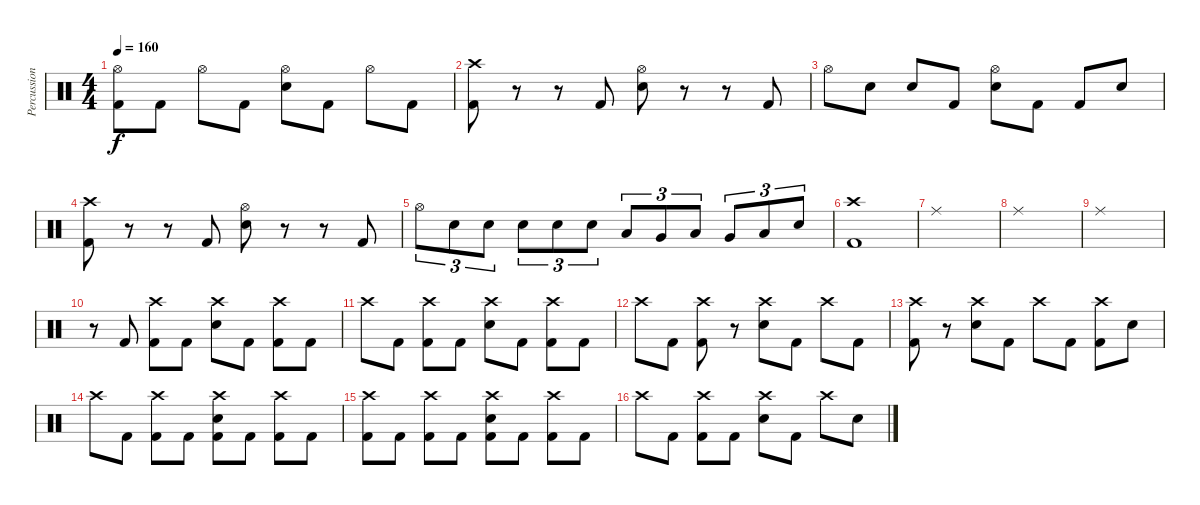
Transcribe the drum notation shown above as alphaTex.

\track ("Percussion" "Percussion") {instrument percussion}
\staff {score}
\articulation defaults
\ts (4 4)
\tempo 160
\clef neutral
\ks c
("Hi-Hat (open)" "Kick (hit) 2").8{dy f} "Kick (hit) 2".8 "Hi-Hat (open)".8 "Kick (hit) 2".8 ("Hi-Hat (open)" "Electric Snare (hit)").8 "Kick (hit) 2".8 "Hi-Hat (open)".8 "Kick (hit) 2".8 |
("Crash high (hit)" "Kick (hit) 2").8 r.8 r.8 "Kick (hit) 2".8 ("Hi-Hat (open)" "Electric Snare (hit)").8 r.8 r.8 "Kick (hit) 2".8 |
"Hi-Hat (open)".8 "Electric Snare (hit)".8 "Electric Snare (hit)".8 "Kick (hit) 2".8 ("Hi-Hat (open)" "Electric Snare (hit)").8 "Kick (hit) 2".8 "Kick (hit) 2".8 "Electric Snare (hit)".8 |
("Crash high (hit)" "Kick (hit) 2").8 r.8 r.8 "Kick (hit) 2".8 ("Hi-Hat (open)" "Electric Snare (hit)").8 r.8 r.8 "Kick (hit) 2".8 |
"Hi-Hat (open)".8{tu (3 2)} "Electric Snare (hit)".8{tu (3 2)} "Electric Snare (hit)".8{tu (3 2)} "Electric Snare (hit)".8{tu (3 2)} "Electric Snare (hit)".8{tu (3 2)} "Electric Snare (hit)".8{tu (3 2)} "Low Tom (hit)".8{tu (3 2)} "Very Low Tom (hit)".8{tu (3 2)} "Low Floor Tom (hit)".8{tu (3 2)} "Very Low Tom (hit)".8{tu (3 2)} "Low Tom (hit)".8{tu (3 2)} "Electric Snare (hit)".8{tu (3 2)} |
("Crash high (hit)" "Kick (hit) 2").1 |
"Ride (middle)".1 |
"Ride (middle)".1 |
"Ride (middle)".1 |
r.8 "Kick (hit) 2".8 ("Crash high (hit)" "Kick (hit) 2").8 "Kick (hit) 2".8 ("Crash high (hit)" "Electric Snare (hit)").8 "Kick (hit) 2".8 ("Crash high (hit)" "Kick (hit) 2").8 "Kick (hit) 2".8 |
"Crash high (hit)".8 "Kick (hit) 2".8 ("Crash high (hit)" "Kick (hit) 2").8 "Kick (hit) 2".8 ("Crash high (hit)" "Electric Snare (hit)").8 "Kick (hit) 2".8 ("Crash high (hit)" "Kick (hit) 2").8 "Kick (hit) 2".8 |
"Crash high (hit)".8 "Kick (hit) 2".8 ("Crash high (hit)" "Kick (hit) 2").8 r.8 ("Crash high (hit)" "Electric Snare (hit)").8 "Kick (hit) 2".8 "Crash high (hit)".8 "Kick (hit) 2".8 |
("Crash high (hit)" "Kick (hit) 2").8 r.8 ("Crash high (hit)" "Electric Snare (hit)").8 "Kick (hit) 2".8 "Crash high (hit)".8 "Kick (hit) 2".8 ("Crash high (hit)" "Kick (hit) 2").8 "Electric Snare (hit)".8 |
"Crash high (hit)".8 "Kick (hit) 2".8 ("Crash high (hit)" "Kick (hit) 2").8 "Kick (hit) 2".8 ("Crash high (hit)" "Electric Snare (hit)" "Kick (hit) 2").8 "Kick (hit) 2".8 ("Crash high (hit)" "Kick (hit) 2").8 "Kick (hit) 2".8 |
("Crash high (hit)" "Kick (hit) 2").8 "Kick (hit) 2".8 ("Crash high (hit)" "Kick (hit) 2").8 "Kick (hit) 2".8 ("Crash high (hit)" "Electric Snare (hit)" "Kick (hit) 2").8 "Kick (hit) 2".8 ("Crash high (hit)" "Kick (hit) 2").8 "Kick (hit) 2".8 |
"Crash high (hit)".8 "Kick (hit) 2".8 ("Crash high (hit)" "Kick (hit) 2").8 "Kick (hit) 2".8 ("Crash high (hit)" "Electric Snare (hit)").8 "Kick (hit) 2".8 "Crash high (hit)".8 "Electric Snare (hit)".8
